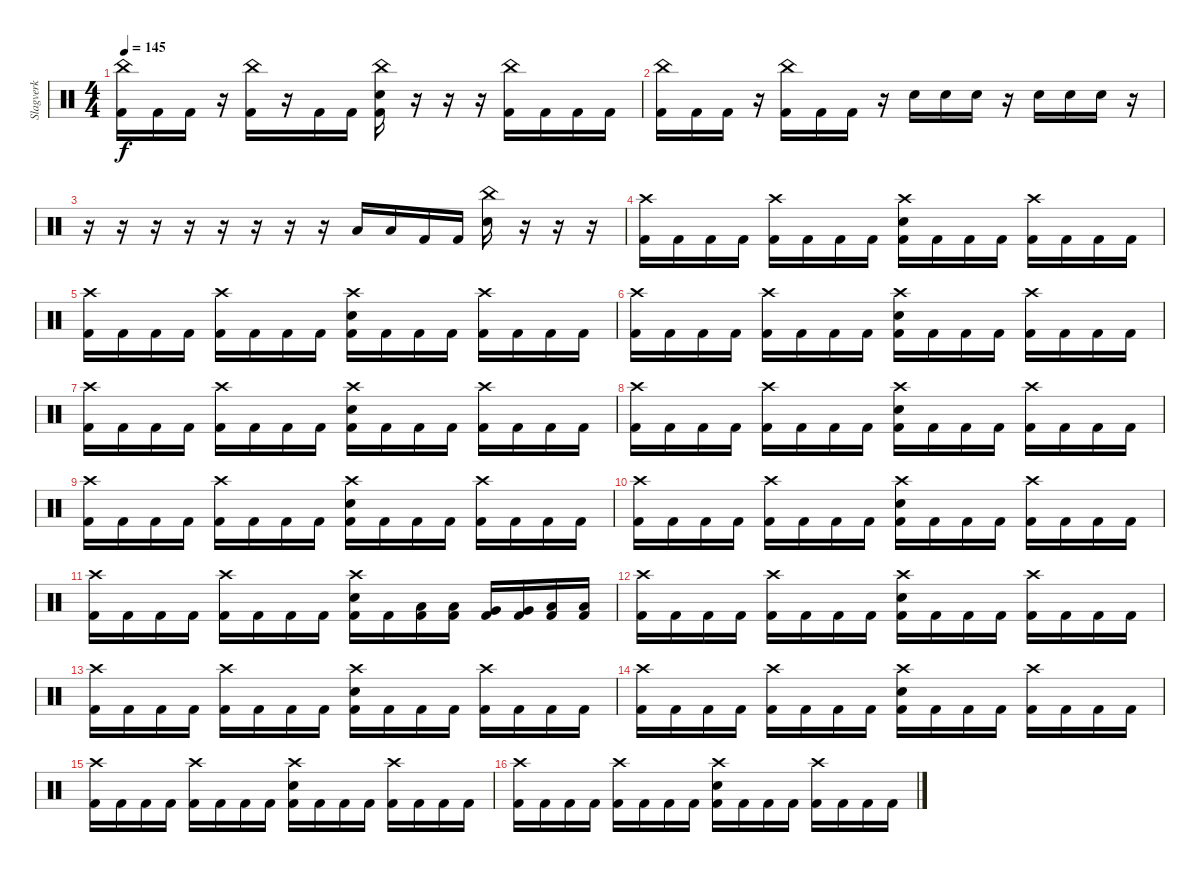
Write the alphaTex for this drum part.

\track ("Slagverk" "Slagverk") {instrument percussion}
\staff {score}
\articulation defaults
\ts (4 4)
\tempo 145
\clef neutral
\ks c
("China (hit)" "Kick (hit) 2").16{dy f} "Kick (hit) 2".16 "Kick (hit) 2".16 r.16 ("China (hit)" "Kick (hit) 2").16 r.16 "Kick (hit) 2".16 "Kick (hit) 2".16 ("China (hit)" "Kick (hit) 2" "Electric Snare (hit)").16 r.16 r.16 r.16 ("China (hit)" "Kick (hit) 2").16 "Kick (hit) 2".16 "Kick (hit) 2".16 "Kick (hit) 2".16 |
("China (hit)" "Kick (hit) 2").16 "Kick (hit) 2".16 "Kick (hit) 2".16 r.16 ("China (hit)" "Kick (hit) 2").16 "Kick (hit) 2".16 "Kick (hit) 2".16 r.16 "Electric Snare (hit)".16 "Electric Snare (hit)".16 "Electric Snare (hit)".16 r.16 "Electric Snare (hit)".16 "Electric Snare (hit)".16 "Electric Snare (hit)".16 r.16 |
r.16 r.16 r.16 r.16 r.16 r.16 r.16 r.16 "Low Tom (hit)".16 "Low Tom (hit)".16 "Kick (hit) 2".16 "Kick (hit) 2".16 ("China (hit)" "Electric Snare (hit)").16 r.16 r.16 r.16 |
("Crash high (hit)" "Kick (hit) 2").16 "Kick (hit) 2".16 "Kick (hit) 2".16 "Kick (hit) 2".16 ("Crash high (hit)" "Kick (hit) 2").16 "Kick (hit) 2".16 "Kick (hit) 2".16 "Kick (hit) 2".16 ("Crash high (hit)" "Electric Snare (hit)" "Kick (hit) 2").16 "Kick (hit) 2".16 "Kick (hit) 2".16 "Kick (hit) 2".16 ("Crash high (hit)" "Kick (hit) 2").16 "Kick (hit) 2".16 "Kick (hit) 2".16 "Kick (hit) 2".16 |
("Crash high (hit)" "Kick (hit) 2").16 "Kick (hit) 2".16 "Kick (hit) 2".16 "Kick (hit) 2".16 ("Crash high (hit)" "Kick (hit) 2").16 "Kick (hit) 2".16 "Kick (hit) 2".16 "Kick (hit) 2".16 ("Crash high (hit)" "Electric Snare (hit)" "Kick (hit) 2").16 "Kick (hit) 2".16 "Kick (hit) 2".16 "Kick (hit) 2".16 ("Crash high (hit)" "Kick (hit) 2").16 "Kick (hit) 2".16 "Kick (hit) 2".16 "Kick (hit) 2".16 |
("Crash high (hit)" "Kick (hit) 2").16 "Kick (hit) 2".16 "Kick (hit) 2".16 "Kick (hit) 2".16 ("Crash high (hit)" "Kick (hit) 2").16 "Kick (hit) 2".16 "Kick (hit) 2".16 "Kick (hit) 2".16 ("Crash high (hit)" "Electric Snare (hit)" "Kick (hit) 2").16 "Kick (hit) 2".16 "Kick (hit) 2".16 "Kick (hit) 2".16 ("Crash high (hit)" "Kick (hit) 2").16 "Kick (hit) 2".16 "Kick (hit) 2".16 "Kick (hit) 2".16 |
("Crash high (hit)" "Kick (hit) 2").16 "Kick (hit) 2".16 "Kick (hit) 2".16 "Kick (hit) 2".16 ("Crash high (hit)" "Kick (hit) 2").16 "Kick (hit) 2".16 "Kick (hit) 2".16 "Kick (hit) 2".16 ("Crash high (hit)" "Electric Snare (hit)" "Kick (hit) 2").16 "Kick (hit) 2".16 "Kick (hit) 2".16 "Kick (hit) 2".16 ("Crash high (hit)" "Kick (hit) 2").16 "Kick (hit) 2".16 "Kick (hit) 2".16 "Kick (hit) 2".16 |
("Crash high (hit)" "Kick (hit) 2").16 "Kick (hit) 2".16 "Kick (hit) 2".16 "Kick (hit) 2".16 ("Crash high (hit)" "Kick (hit) 2").16 "Kick (hit) 2".16 "Kick (hit) 2".16 "Kick (hit) 2".16 ("Crash high (hit)" "Electric Snare (hit)" "Kick (hit) 2").16 "Kick (hit) 2".16 "Kick (hit) 2".16 "Kick (hit) 2".16 ("Crash high (hit)" "Kick (hit) 2").16 "Kick (hit) 2".16 "Kick (hit) 2".16 "Kick (hit) 2".16 |
("Crash high (hit)" "Kick (hit) 2").16 "Kick (hit) 2".16 "Kick (hit) 2".16 "Kick (hit) 2".16 ("Crash high (hit)" "Kick (hit) 2").16 "Kick (hit) 2".16 "Kick (hit) 2".16 "Kick (hit) 2".16 ("Crash high (hit)" "Electric Snare (hit)" "Kick (hit) 2").16 "Kick (hit) 2".16 "Kick (hit) 2".16 "Kick (hit) 2".16 ("Crash high (hit)" "Kick (hit) 2").16 "Kick (hit) 2".16 "Kick (hit) 2".16 "Kick (hit) 2".16 |
("Crash high (hit)" "Kick (hit) 2").16 "Kick (hit) 2".16 "Kick (hit) 2".16 "Kick (hit) 2".16 ("Crash high (hit)" "Kick (hit) 2").16 "Kick (hit) 2".16 "Kick (hit) 2".16 "Kick (hit) 2".16 ("Crash high (hit)" "Electric Snare (hit)" "Kick (hit) 2").16 "Kick (hit) 2".16 "Kick (hit) 2".16 "Kick (hit) 2".16 ("Crash high (hit)" "Kick (hit) 2").16 "Kick (hit) 2".16 "Kick (hit) 2".16 "Kick (hit) 2".16 |
("Crash high (hit)" "Kick (hit) 2").16 "Kick (hit) 2".16 "Kick (hit) 2".16 "Kick (hit) 2".16 ("Crash high (hit)" "Kick (hit) 2").16 "Kick (hit) 2".16 "Kick (hit) 2".16 "Kick (hit) 2".16 ("Crash high (hit)" "Electric Snare (hit)" "Kick (hit) 2").16 "Kick (hit) 2".16 ("Low Tom (hit)" "Kick (hit) 2").16 ("Low Tom (hit)" "Kick (hit) 2").16 ("Very Low Tom (hit)" "Kick (hit) 2").16 ("Very Low Tom (hit)" "Kick (hit) 2").16 ("Low Floor Tom (hit)" "Kick (hit) 2").16 ("Low Floor Tom (hit)" "Kick (hit) 2").16 |
("Crash high (hit)" "Kick (hit) 2").16 "Kick (hit) 2".16 "Kick (hit) 2".16 "Kick (hit) 2".16 ("Crash high (hit)" "Kick (hit) 2").16 "Kick (hit) 2".16 "Kick (hit) 2".16 "Kick (hit) 2".16 ("Crash high (hit)" "Electric Snare (hit)" "Kick (hit) 2").16 "Kick (hit) 2".16 "Kick (hit) 2".16 "Kick (hit) 2".16 ("Crash high (hit)" "Kick (hit) 2").16 "Kick (hit) 2".16 "Kick (hit) 2".16 "Kick (hit) 2".16 |
("Crash high (hit)" "Kick (hit) 2").16 "Kick (hit) 2".16 "Kick (hit) 2".16 "Kick (hit) 2".16 ("Crash high (hit)" "Kick (hit) 2").16 "Kick (hit) 2".16 "Kick (hit) 2".16 "Kick (hit) 2".16 ("Crash high (hit)" "Electric Snare (hit)" "Kick (hit) 2").16 "Kick (hit) 2".16 "Kick (hit) 2".16 "Kick (hit) 2".16 ("Crash high (hit)" "Kick (hit) 2").16 "Kick (hit) 2".16 "Kick (hit) 2".16 "Kick (hit) 2".16 |
("Crash high (hit)" "Kick (hit) 2").16 "Kick (hit) 2".16 "Kick (hit) 2".16 "Kick (hit) 2".16 ("Crash high (hit)" "Kick (hit) 2").16 "Kick (hit) 2".16 "Kick (hit) 2".16 "Kick (hit) 2".16 ("Crash high (hit)" "Electric Snare (hit)" "Kick (hit) 2").16 "Kick (hit) 2".16 "Kick (hit) 2".16 "Kick (hit) 2".16 ("Crash high (hit)" "Kick (hit) 2").16 "Kick (hit) 2".16 "Kick (hit) 2".16 "Kick (hit) 2".16 |
("Crash high (hit)" "Kick (hit) 2").16 "Kick (hit) 2".16 "Kick (hit) 2".16 "Kick (hit) 2".16 ("Crash high (hit)" "Kick (hit) 2").16 "Kick (hit) 2".16 "Kick (hit) 2".16 "Kick (hit) 2".16 ("Crash high (hit)" "Electric Snare (hit)" "Kick (hit) 2").16 "Kick (hit) 2".16 "Kick (hit) 2".16 "Kick (hit) 2".16 ("Crash high (hit)" "Kick (hit) 2").16 "Kick (hit) 2".16 "Kick (hit) 2".16 "Kick (hit) 2".16 |
("Crash high (hit)" "Kick (hit) 2").16 "Kick (hit) 2".16 "Kick (hit) 2".16 "Kick (hit) 2".16 ("Crash high (hit)" "Kick (hit) 2").16 "Kick (hit) 2".16 "Kick (hit) 2".16 "Kick (hit) 2".16 ("Crash high (hit)" "Electric Snare (hit)" "Kick (hit) 2").16 "Kick (hit) 2".16 "Kick (hit) 2".16 "Kick (hit) 2".16 ("Crash high (hit)" "Kick (hit) 2").16 "Kick (hit) 2".16 "Kick (hit) 2".16 "Kick (hit) 2".16
